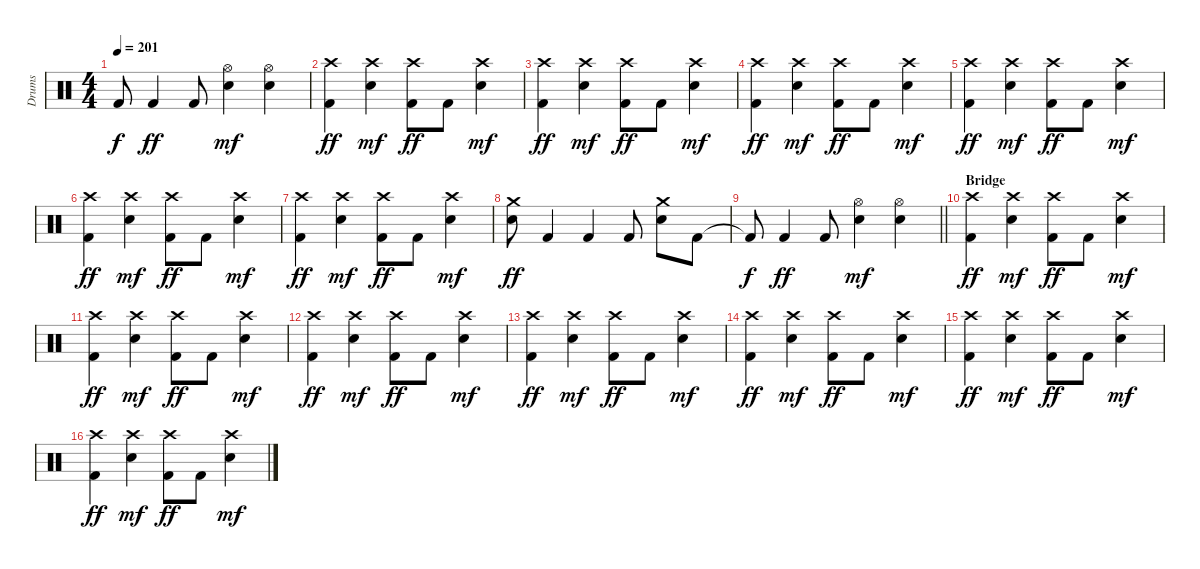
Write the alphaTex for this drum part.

\track ("Drums" "Drums") {instrument percussion}
\staff {score}
\articulation defaults
\ts (4 4)
\tempo 201
\clef neutral
\ks c "Kick (hit) 2"{t}.8{dy f} "Kick (hit) 2".4{dy ff} "Kick (hit) 2".8
("Hi-Hat (open)" "Snare (hit) 2").4{dy mf} ("Hi-Hat (open)" "Snare (hit) 2").4 |
("Crash high (hit)" "Kick (hit) 2").4{dy ff} ("Crash high (hit)" "Snare (hit) 2").4{dy mf} ("Crash high (hit)" "Kick (hit) 2").8{dy ff} "Kick (hit) 2".8 ("Crash high (hit)" "Snare (hit) 2").4{dy mf} |
("Crash high (hit)" "Kick (hit) 2").4{dy ff} ("Crash high (hit)" "Snare (hit) 2").4{dy mf} ("Crash high (hit)" "Kick (hit) 2").8{dy ff} "Kick (hit) 2".8 ("Crash high (hit)" "Snare (hit) 2").4{dy mf} |
("Crash high (hit)" "Kick (hit) 2").4{dy ff} ("Crash high (hit)" "Snare (hit) 2").4{dy mf} ("Crash high (hit)" "Kick (hit) 2").8{dy ff} "Kick (hit) 2".8 ("Crash high (hit)" "Snare (hit) 2").4{dy mf} |
("Crash high (hit)" "Kick (hit) 2").4{dy ff} ("Crash high (hit)" "Snare (hit) 2").4{dy mf} ("Crash high (hit)" "Kick (hit) 2").8{dy ff} "Kick (hit) 2".8 ("Crash high (hit)" "Snare (hit) 2").4{dy mf} |
("Crash high (hit)" "Kick (hit) 2").4{dy ff} ("Crash high (hit)" "Snare (hit) 2").4{dy mf} ("Crash high (hit)" "Kick (hit) 2").8{dy ff} "Kick (hit) 2".8 ("Crash high (hit)" "Snare (hit) 2").4{dy mf} |
("Crash high (hit)" "Kick (hit) 2").4{dy ff} ("Crash high (hit)" "Snare (hit) 2").4{dy mf} ("Crash high (hit)" "Kick (hit) 2").8{dy ff} "Kick (hit) 2".8 ("Crash high (hit)" "Snare (hit) 2").4{dy mf} |
("Crash medium (hit)" "Snare (hit) 2").8{dy ff} "Kick (hit) 2".4 "Kick (hit) 2".4 "Kick (hit) 2".8 ("Crash medium (hit)" "Snare (hit) 2").8 "Kick (hit) 2".8 |
\barLineRight lightlight "Kick (hit) 2"{t}.8{dy f} "Kick (hit) 2".4{dy ff} "Kick (hit) 2".8
("Hi-Hat (open)" "Snare (hit) 2").4{dy mf} ("Hi-Hat (open)" "Snare (hit) 2").4 |
\section ("" "Bridge")
("Crash high (hit)" "Kick (hit) 2").4{dy ff} ("Crash high (hit)" "Snare (hit) 2").4{dy mf} ("Crash high (hit)" "Kick (hit) 2").8{dy ff} "Kick (hit) 2".8 ("Crash high (hit)" "Snare (hit) 2").4{dy mf} |
("Crash high (hit)" "Kick (hit) 2").4{dy ff} ("Crash high (hit)" "Snare (hit) 2").4{dy mf} ("Crash high (hit)" "Kick (hit) 2").8{dy ff} "Kick (hit) 2".8 ("Crash high (hit)" "Snare (hit) 2").4{dy mf} |
("Crash high (hit)" "Kick (hit) 2").4{dy ff} ("Crash high (hit)" "Snare (hit) 2").4{dy mf} ("Crash high (hit)" "Kick (hit) 2").8{dy ff} "Kick (hit) 2".8 ("Crash high (hit)" "Snare (hit) 2").4{dy mf} |
("Crash high (hit)" "Kick (hit) 2").4{dy ff} ("Crash high (hit)" "Snare (hit) 2").4{dy mf} ("Crash high (hit)" "Kick (hit) 2").8{dy ff} "Kick (hit) 2".8 ("Crash high (hit)" "Snare (hit) 2").4{dy mf} |
("Crash high (hit)" "Kick (hit) 2").4{dy ff} ("Crash high (hit)" "Snare (hit) 2").4{dy mf} ("Crash high (hit)" "Kick (hit) 2").8{dy ff} "Kick (hit) 2".8 ("Crash high (hit)" "Snare (hit) 2").4{dy mf} |
("Crash high (hit)" "Kick (hit) 2").4{dy ff} ("Crash high (hit)" "Snare (hit) 2").4{dy mf} ("Crash high (hit)" "Kick (hit) 2").8{dy ff} "Kick (hit) 2".8 ("Crash high (hit)" "Snare (hit) 2").4{dy mf} |
("Crash high (hit)" "Kick (hit) 2").4{dy ff} ("Crash high (hit)" "Snare (hit) 2").4{dy mf} ("Crash high (hit)" "Kick (hit) 2").8{dy ff} "Kick (hit) 2".8 ("Crash high (hit)" "Snare (hit) 2").4{dy mf}
